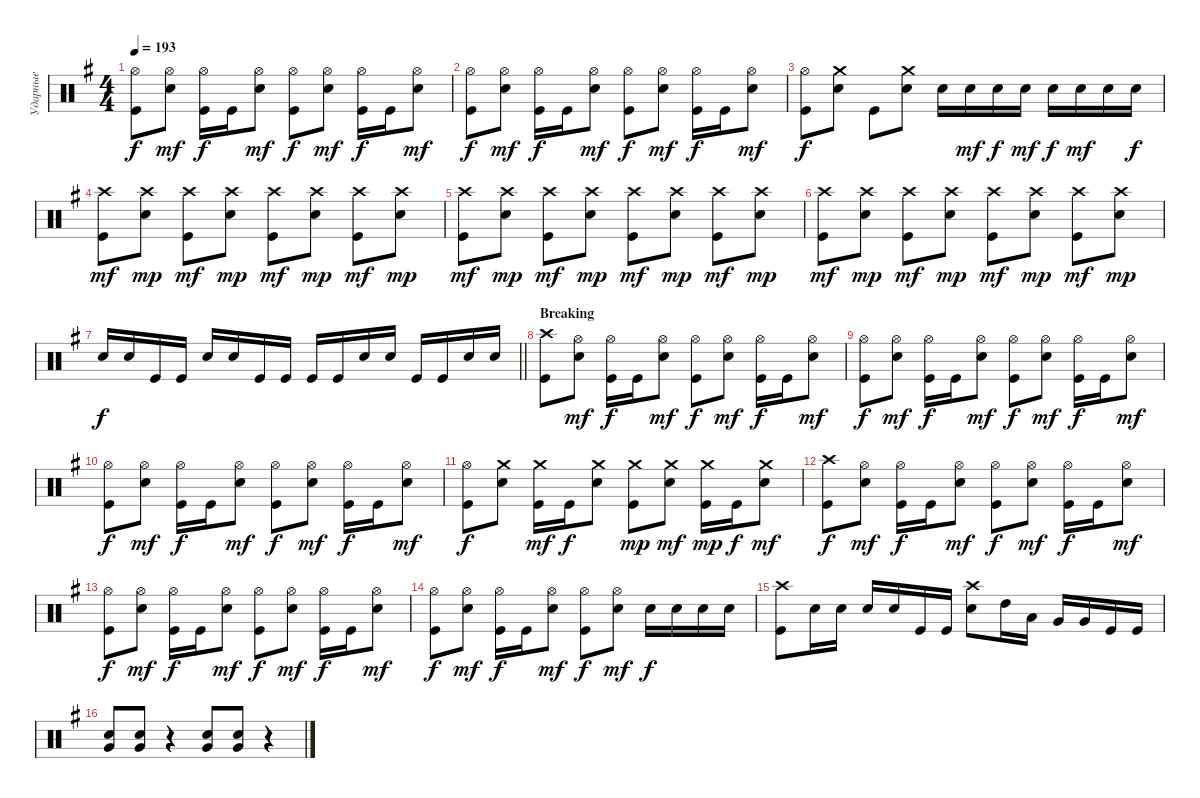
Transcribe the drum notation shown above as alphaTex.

\track ("Ударные" "Ударные") {instrument percussion}
\staff {score}
\articulation defaults
\ts (4 4)
\tempo 193
\clef neutral
\ks eminor
("Kick (hit)" "Hi-Hat (open)").8{dy f} ("Snare (hit) 2" "Hi-Hat (open)").8{dy mf} ("Kick (hit)" "Hi-Hat (open)").16{dy f} "Kick (hit)".16 ("Snare (hit) 2" "Hi-Hat (open)").8{dy mf} ("Kick (hit)" "Hi-Hat (open)").8{dy f} ("Snare (hit) 2" "Hi-Hat (open)").8{dy mf} ("Kick (hit)" "Hi-Hat (open)").16{dy f} "Kick (hit)".16 ("Snare (hit) 2" "Hi-Hat (open)").8{dy mf} |
("Kick (hit)" "Hi-Hat (open)").8{dy f} ("Snare (hit) 2" "Hi-Hat (open)").8{dy mf} ("Kick (hit)" "Hi-Hat (open)").16{dy f} "Kick (hit)".16 ("Snare (hit) 2" "Hi-Hat (open)").8{dy mf} ("Kick (hit)" "Hi-Hat (open)").8{dy f} ("Snare (hit) 2" "Hi-Hat (open)").8{dy mf} ("Kick (hit)" "Hi-Hat (open)").16{dy f} "Kick (hit)".16 ("Snare (hit) 2" "Hi-Hat (open)").8{dy mf} |
("Kick (hit)" "Hi-Hat (open)").8{dy f} ("Snare (hit) 2" "Crash medium (hit)").8 "Kick (hit)".8 ("Snare (hit) 2" "Crash medium (hit)").8 "Snare (hit) 2".16 "Snare (hit) 2".16{dy mf} "Snare (hit) 2".16{dy f} "Snare (hit) 2".16{dy mf} "Snare (hit) 2".16{dy f} "Snare (hit) 2".16{dy mf} "Snare (hit) 2".16 "Snare (hit) 2".16{dy f} |
("Kick (hit)" "Crash high (hit)").8{dy mf} ("Snare (hit) 2" "Crash high (hit)").8{dy mp} ("Kick (hit)" "Crash high (hit)").8{dy mf} ("Snare (hit) 2" "Crash high (hit)").8{dy mp} ("Kick (hit)" "Crash high (hit)").8{dy mf} ("Snare (hit) 2" "Crash high (hit)").8{dy mp} ("Kick (hit)" "Crash high (hit)").8{dy mf} ("Snare (hit) 2" "Crash high (hit)").8{dy mp} |
("Kick (hit)" "Crash high (hit)").8{dy mf} ("Snare (hit) 2" "Crash high (hit)").8{dy mp} ("Kick (hit)" "Crash high (hit)").8{dy mf} ("Snare (hit) 2" "Crash high (hit)").8{dy mp} ("Kick (hit)" "Crash high (hit)").8{dy mf} ("Snare (hit) 2" "Crash high (hit)").8{dy mp} ("Kick (hit)" "Crash high (hit)").8{dy mf} ("Snare (hit) 2" "Crash high (hit)").8{dy mp} |
("Kick (hit)" "Crash high (hit)").8{dy mf} ("Snare (hit) 2" "Crash high (hit)").8{dy mp} ("Kick (hit)" "Crash high (hit)").8{dy mf} ("Snare (hit) 2" "Crash high (hit)").8{dy mp} ("Kick (hit)" "Crash high (hit)").8{dy mf} ("Snare (hit) 2" "Crash high (hit)").8{dy mp} ("Kick (hit)" "Crash high (hit)").8{dy mf} ("Snare (hit) 2" "Crash high (hit)").8{dy mp} |
\barLineRight lightlight "Snare (hit) 2".16{dy f} "Snare (hit) 2".16 "Kick (hit)".16 "Kick (hit)".16 "Snare (hit) 2".16 "Snare (hit) 2".16 "Kick (hit)".16 "Kick (hit)".16 "Kick (hit)".16 "Kick (hit)".16 "Snare (hit) 2".16 "Snare (hit) 2".16 "Kick (hit)".16 "Kick (hit)".16 "Snare (hit) 2".16 "Snare (hit) 2".16
|
\section ("" "Breaking")
("Kick (hit)" "Crash high (hit)").8 ("Snare (hit) 2" "Hi-Hat (open)").8{dy mf} ("Kick (hit)" "Hi-Hat (open)").16{dy f} "Kick (hit)".16 ("Snare (hit) 2" "Hi-Hat (open)").8{dy mf} ("Kick (hit)" "Hi-Hat (open)").8{dy f} ("Snare (hit) 2" "Hi-Hat (open)").8{dy mf} ("Kick (hit)" "Hi-Hat (open)").16{dy f} "Kick (hit)".16 ("Snare (hit) 2" "Hi-Hat (open)").8{dy mf} |
("Kick (hit)" "Hi-Hat (open)").8{dy f} ("Snare (hit) 2" "Hi-Hat (open)").8{dy mf} ("Kick (hit)" "Hi-Hat (open)").16{dy f} "Kick (hit)".16 ("Snare (hit) 2" "Hi-Hat (open)").8{dy mf} ("Kick (hit)" "Hi-Hat (open)").8{dy f} ("Snare (hit) 2" "Hi-Hat (open)").8{dy mf} ("Kick (hit)" "Hi-Hat (open)").16{dy f} "Kick (hit)".16 ("Snare (hit) 2" "Hi-Hat (open)").8{dy mf} |
("Kick (hit)" "Hi-Hat (open)").8{dy f} ("Snare (hit) 2" "Hi-Hat (open)").8{dy mf} ("Kick (hit)" "Hi-Hat (open)").16{dy f} "Kick (hit)".16 ("Snare (hit) 2" "Hi-Hat (open)").8{dy mf} ("Kick (hit)" "Hi-Hat (open)").8{dy f} ("Snare (hit) 2" "Hi-Hat (open)").8{dy mf} ("Kick (hit)" "Hi-Hat (open)").16{dy f} "Kick (hit)".16 ("Snare (hit) 2" "Hi-Hat (open)").8{dy mf} |
("Kick (hit)" "Hi-Hat (open)").8{dy f} ("Snare (hit) 2" "Crash medium (hit)").8 ("Kick (hit)" "Crash medium (hit)").16{dy mf} "Kick (hit)".16{dy f} ("Snare (hit) 2" "Crash medium (hit)").8 ("Kick (hit)" "Crash medium (hit)").8{dy mp} ("Snare (hit) 2" "Crash medium (hit)").8{dy mf} ("Kick (hit)" "Crash medium (hit)").16{dy mp} "Kick (hit)".16{dy f} ("Snare (hit) 2" "Crash medium (hit)").8{dy mf} |
("Kick (hit)" "Crash high (hit)").8{dy f} ("Snare (hit) 2" "Hi-Hat (open)").8{dy mf} ("Kick (hit)" "Hi-Hat (open)").16{dy f} "Kick (hit)".16 ("Snare (hit) 2" "Hi-Hat (open)").8{dy mf} ("Kick (hit)" "Hi-Hat (open)").8{dy f} ("Snare (hit) 2" "Hi-Hat (open)").8{dy mf} ("Kick (hit)" "Hi-Hat (open)").16{dy f} "Kick (hit)".16 ("Snare (hit) 2" "Hi-Hat (open)").8{dy mf} |
("Kick (hit)" "Hi-Hat (open)").8{dy f} ("Snare (hit) 2" "Hi-Hat (open)").8{dy mf} ("Kick (hit)" "Hi-Hat (open)").16{dy f} "Kick (hit)".16 ("Snare (hit) 2" "Hi-Hat (open)").8{dy mf} ("Kick (hit)" "Hi-Hat (open)").8{dy f} ("Snare (hit) 2" "Hi-Hat (open)").8{dy mf} ("Kick (hit)" "Hi-Hat (open)").16{dy f} "Kick (hit)".16 ("Snare (hit) 2" "Hi-Hat (open)").8{dy mf} |
("Kick (hit)" "Hi-Hat (open)").8{dy f} ("Snare (hit) 2" "Hi-Hat (open)").8{dy mf} ("Kick (hit)" "Hi-Hat (open)").16{dy f} "Kick (hit)".16 ("Snare (hit) 2" "Hi-Hat (open)").8{dy mf} ("Kick (hit)" "Hi-Hat (open)").8{dy f} ("Snare (hit) 2" "Hi-Hat (open)").8{dy mf} "Snare (hit) 2".16{dy f} "Snare (hit) 2".16 "Snare (hit) 2".16 "Snare (hit) 2".16 |
("Kick (hit)" "Crash high (hit)").8 "Snare (hit) 2".16 "Snare (hit) 2".16 "Snare (hit) 2".16 "Snare (hit) 2".16 "Kick (hit)".16 "Kick (hit)".16 ("Snare (hit) 2" "Crash high (hit)").8 "High Tom (hit)".16 "Low Tom (hit)".16 "Very Low Tom (hit)".16 "Very Low Tom (hit)".16 "Kick (hit)".16 "Kick (hit)".16 |
("Snare (hit) 2" "Very Low Tom (hit)").8 ("Very Low Tom (hit)" "Snare (hit) 2").8 r.4 ("Snare (hit) 2" "Very Low Tom (hit)").8 ("Snare (hit) 2" "Very Low Tom (hit)").8 r.4
